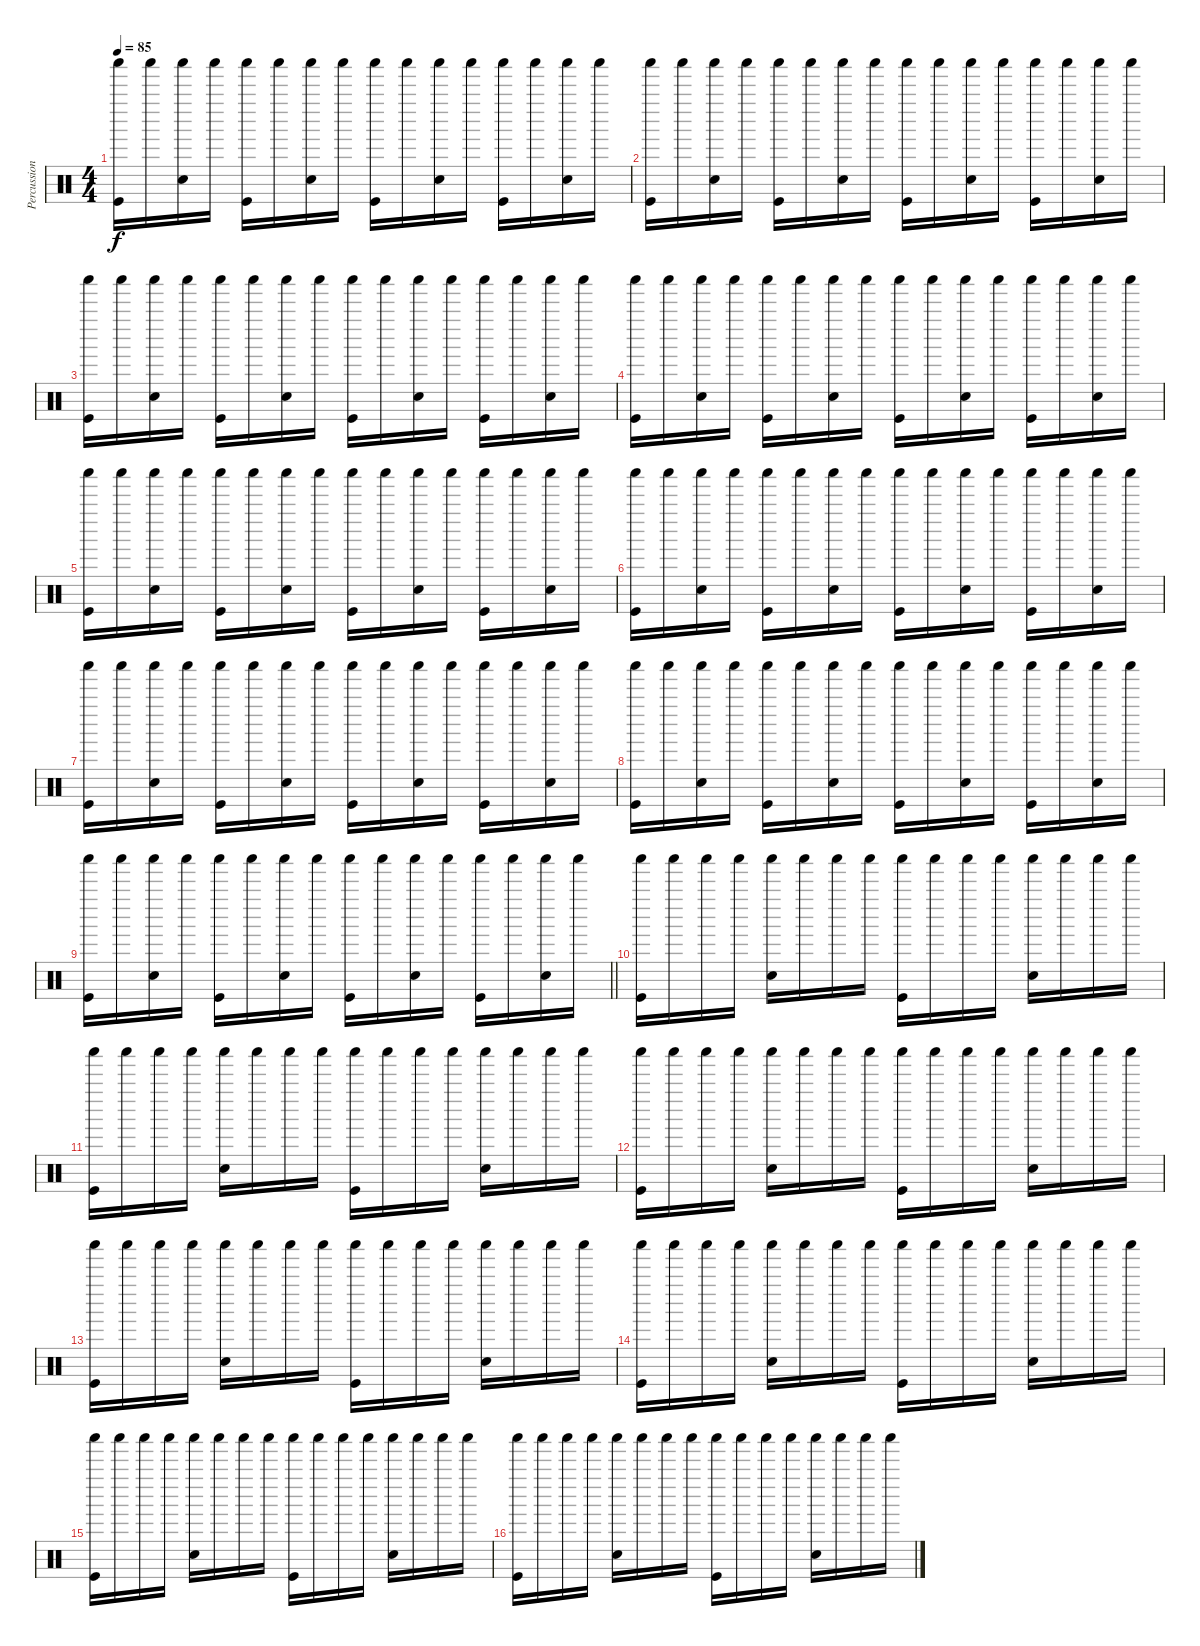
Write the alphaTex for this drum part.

\track ("Percussion" "Percussion") {instrument percussion}
\staff {score}
\articulation defaults
\ts (4 4)
\tempo 85
\clef neutral
\ks c
("Shaker (hit)" "Kick (hit)").16{dy f} "Shaker (hit)".16 ("Shaker (hit)" "Snare (hit) 2").16 "Shaker (hit)".16 ("Shaker (hit)" "Kick (hit)").16 "Shaker (hit)".16 ("Shaker (hit)" "Snare (hit) 2").16 "Shaker (hit)".16 ("Shaker (hit)" "Kick (hit)").16 "Shaker (hit)".16 ("Shaker (hit)" "Snare (hit) 2").16 "Shaker (hit)".16 ("Shaker (hit)" "Kick (hit)").16 "Shaker (hit)".16 ("Shaker (hit)" "Snare (hit) 2").16 "Shaker (hit)".16 |
("Shaker (hit)" "Kick (hit)").16 "Shaker (hit)".16 ("Shaker (hit)" "Snare (hit) 2").16 "Shaker (hit)".16 ("Shaker (hit)" "Kick (hit)").16 "Shaker (hit)".16 ("Shaker (hit)" "Snare (hit) 2").16 "Shaker (hit)".16 ("Shaker (hit)" "Kick (hit)").16 "Shaker (hit)".16 ("Shaker (hit)" "Snare (hit) 2").16 "Shaker (hit)".16 ("Shaker (hit)" "Kick (hit)").16 "Shaker (hit)".16 ("Shaker (hit)" "Snare (hit) 2").16 "Shaker (hit)".16 |
("Shaker (hit)" "Kick (hit)").16 "Shaker (hit)".16 ("Shaker (hit)" "Snare (hit) 2").16 "Shaker (hit)".16 ("Shaker (hit)" "Kick (hit)").16 "Shaker (hit)".16 ("Shaker (hit)" "Snare (hit) 2").16 "Shaker (hit)".16 ("Shaker (hit)" "Kick (hit)").16 "Shaker (hit)".16 ("Shaker (hit)" "Snare (hit) 2").16 "Shaker (hit)".16 ("Shaker (hit)" "Kick (hit)").16 "Shaker (hit)".16 ("Shaker (hit)" "Snare (hit) 2").16 "Shaker (hit)".16 |
("Shaker (hit)" "Kick (hit)").16 "Shaker (hit)".16 ("Shaker (hit)" "Snare (hit) 2").16 "Shaker (hit)".16 ("Shaker (hit)" "Kick (hit)").16 "Shaker (hit)".16 ("Shaker (hit)" "Snare (hit) 2").16 "Shaker (hit)".16 ("Shaker (hit)" "Kick (hit)").16 "Shaker (hit)".16 ("Shaker (hit)" "Snare (hit) 2").16 "Shaker (hit)".16 ("Shaker (hit)" "Kick (hit)").16 "Shaker (hit)".16 ("Shaker (hit)" "Snare (hit) 2").16 "Shaker (hit)".16 |
("Shaker (hit)" "Kick (hit)").16 "Shaker (hit)".16 ("Shaker (hit)" "Snare (hit) 2").16 "Shaker (hit)".16 ("Shaker (hit)" "Kick (hit)").16 "Shaker (hit)".16 ("Shaker (hit)" "Snare (hit) 2").16 "Shaker (hit)".16 ("Shaker (hit)" "Kick (hit)").16 "Shaker (hit)".16 ("Shaker (hit)" "Snare (hit) 2").16 "Shaker (hit)".16 ("Shaker (hit)" "Kick (hit)").16 "Shaker (hit)".16 ("Shaker (hit)" "Snare (hit) 2").16 "Shaker (hit)".16 |
("Shaker (hit)" "Kick (hit)").16 "Shaker (hit)".16 ("Shaker (hit)" "Snare (hit) 2").16 "Shaker (hit)".16 ("Shaker (hit)" "Kick (hit)").16 "Shaker (hit)".16 ("Shaker (hit)" "Snare (hit) 2").16 "Shaker (hit)".16 ("Shaker (hit)" "Kick (hit)").16 "Shaker (hit)".16 ("Shaker (hit)" "Snare (hit) 2").16 "Shaker (hit)".16 ("Shaker (hit)" "Kick (hit)").16 "Shaker (hit)".16 ("Shaker (hit)" "Snare (hit) 2").16 "Shaker (hit)".16 |
("Shaker (hit)" "Kick (hit)").16 "Shaker (hit)".16 ("Shaker (hit)" "Snare (hit) 2").16 "Shaker (hit)".16 ("Shaker (hit)" "Kick (hit)").16 "Shaker (hit)".16 ("Shaker (hit)" "Snare (hit) 2").16 "Shaker (hit)".16 ("Shaker (hit)" "Kick (hit)").16 "Shaker (hit)".16 ("Shaker (hit)" "Snare (hit) 2").16 "Shaker (hit)".16 ("Shaker (hit)" "Kick (hit)").16 "Shaker (hit)".16 ("Shaker (hit)" "Snare (hit) 2").16 "Shaker (hit)".16 |
("Shaker (hit)" "Kick (hit)").16 "Shaker (hit)".16 ("Shaker (hit)" "Snare (hit) 2").16 "Shaker (hit)".16 ("Shaker (hit)" "Kick (hit)").16 "Shaker (hit)".16 ("Shaker (hit)" "Snare (hit) 2").16 "Shaker (hit)".16 ("Shaker (hit)" "Kick (hit)").16 "Shaker (hit)".16 ("Shaker (hit)" "Snare (hit) 2").16 "Shaker (hit)".16 ("Shaker (hit)" "Kick (hit)").16 "Shaker (hit)".16 ("Shaker (hit)" "Snare (hit) 2").16 "Shaker (hit)".16 |
\barLineRight lightlight
("Shaker (hit)" "Kick (hit)").16 "Shaker (hit)".16 ("Shaker (hit)" "Snare (hit) 2").16 "Shaker (hit)".16 ("Shaker (hit)" "Kick (hit)").16 "Shaker (hit)".16 ("Shaker (hit)" "Snare (hit) 2").16 "Shaker (hit)".16 ("Shaker (hit)" "Kick (hit)").16 "Shaker (hit)".16 ("Shaker (hit)" "Snare (hit) 2").16 "Shaker (hit)".16 ("Shaker (hit)" "Kick (hit)").16 "Shaker (hit)".16 ("Shaker (hit)" "Snare (hit) 2").16 "Shaker (hit)".16 |
("Shaker (hit)" "Kick (hit)").16 "Shaker (hit)".16 "Shaker (hit)".16 "Shaker (hit)".16 ("Shaker (hit)" "Snare (hit) 2").16 "Shaker (hit)".16 "Shaker (hit)".16 "Shaker (hit)".16 ("Shaker (hit)" "Kick (hit)").16 "Shaker (hit)".16 "Shaker (hit)".16 "Shaker (hit)".16 ("Shaker (hit)" "Snare (hit) 2").16 "Shaker (hit)".16 "Shaker (hit)".16 "Shaker (hit)".16 |
("Shaker (hit)" "Kick (hit)").16 "Shaker (hit)".16 "Shaker (hit)".16 "Shaker (hit)".16 ("Shaker (hit)" "Snare (hit) 2").16 "Shaker (hit)".16 "Shaker (hit)".16 "Shaker (hit)".16 ("Shaker (hit)" "Kick (hit)").16 "Shaker (hit)".16 "Shaker (hit)".16 "Shaker (hit)".16 ("Shaker (hit)" "Snare (hit) 2").16 "Shaker (hit)".16 "Shaker (hit)".16 "Shaker (hit)".16 |
("Shaker (hit)" "Kick (hit)").16 "Shaker (hit)".16 "Shaker (hit)".16 "Shaker (hit)".16 ("Shaker (hit)" "Snare (hit) 2").16 "Shaker (hit)".16 "Shaker (hit)".16 "Shaker (hit)".16 ("Shaker (hit)" "Kick (hit)").16 "Shaker (hit)".16 "Shaker (hit)".16 "Shaker (hit)".16 ("Shaker (hit)" "Snare (hit) 2").16 "Shaker (hit)".16 "Shaker (hit)".16 "Shaker (hit)".16 |
("Shaker (hit)" "Kick (hit)").16 "Shaker (hit)".16 "Shaker (hit)".16 "Shaker (hit)".16 ("Shaker (hit)" "Snare (hit) 2").16 "Shaker (hit)".16 "Shaker (hit)".16 "Shaker (hit)".16 ("Shaker (hit)" "Kick (hit)").16 "Shaker (hit)".16 "Shaker (hit)".16 "Shaker (hit)".16 ("Shaker (hit)" "Snare (hit) 2").16 "Shaker (hit)".16 "Shaker (hit)".16 "Shaker (hit)".16 |
("Shaker (hit)" "Kick (hit)").16 "Shaker (hit)".16 "Shaker (hit)".16 "Shaker (hit)".16 ("Shaker (hit)" "Snare (hit) 2").16 "Shaker (hit)".16 "Shaker (hit)".16 "Shaker (hit)".16 ("Shaker (hit)" "Kick (hit)").16 "Shaker (hit)".16 "Shaker (hit)".16 "Shaker (hit)".16 ("Shaker (hit)" "Snare (hit) 2").16 "Shaker (hit)".16 "Shaker (hit)".16 "Shaker (hit)".16 |
("Shaker (hit)" "Kick (hit)").16 "Shaker (hit)".16 "Shaker (hit)".16 "Shaker (hit)".16 ("Shaker (hit)" "Snare (hit) 2").16 "Shaker (hit)".16 "Shaker (hit)".16 "Shaker (hit)".16 ("Shaker (hit)" "Kick (hit)").16 "Shaker (hit)".16 "Shaker (hit)".16 "Shaker (hit)".16 ("Shaker (hit)" "Snare (hit) 2").16 "Shaker (hit)".16 "Shaker (hit)".16 "Shaker (hit)".16 |
("Shaker (hit)" "Kick (hit)").16 "Shaker (hit)".16 "Shaker (hit)".16 "Shaker (hit)".16 ("Shaker (hit)" "Snare (hit) 2").16 "Shaker (hit)".16 "Shaker (hit)".16 "Shaker (hit)".16 ("Shaker (hit)" "Kick (hit)").16 "Shaker (hit)".16 "Shaker (hit)".16 "Shaker (hit)".16 ("Shaker (hit)" "Snare (hit) 2").16 "Shaker (hit)".16 "Shaker (hit)".16 "Shaker (hit)".16
